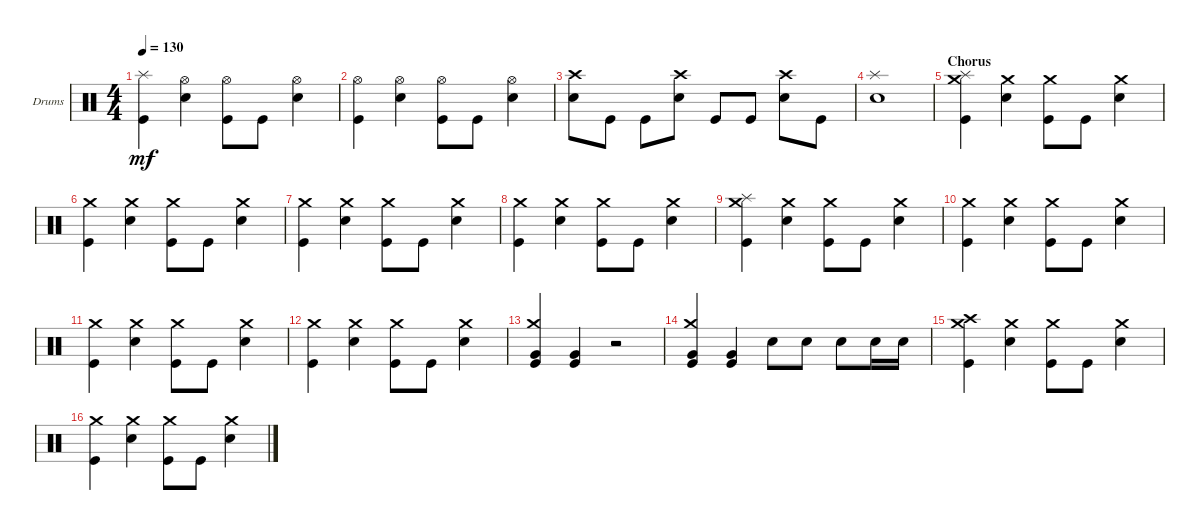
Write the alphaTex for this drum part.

\defaultSystemsLayout 4
\bracketExtendMode groupsimilarinstruments
\firstSystemTrackNameOrientation horizontal
\otherSystemsTrackNameOrientation horizontal
\track ("Drums" "Drums") {instrument percussion}
\staff {score}
\articulation defaults
\ts (4 4)
\tempo 130
\clef neutral
\ks c
("Kick (hit)" "Splash (hit)").4{dy mf} ("Snare (hit) 2" "Hi-Hat (open)").4 ("Kick (hit)" "Hi-Hat (open)").8 "Kick (hit)".8 ("Snare (hit) 2" "Hi-Hat (open)").4 |
("Kick (hit)" "Hi-Hat (open)").4 ("Snare (hit) 2" "Hi-Hat (open)").4 ("Kick (hit)" "Hi-Hat (open)").8 "Kick (hit)".8 ("Snare (hit) 2" "Hi-Hat (open)").4 |
("Snare (hit) 2" "Crash high (hit)").8 "Kick (hit)".8 "Kick (hit)".8 ("Snare (hit) 2" "Crash high (hit)").8 "Kick (hit)".8 "Kick (hit)".8 ("Snare (hit) 2" "Crash high (hit)").8 "Kick (hit)".8 |
("Snare (hit) 2" "Splash (hit)").1 |
\section ("" "Chorus")
("Kick (hit)" "Splash (hit)" "Crash medium (hit)").4 ("Snare (hit) 2" "Crash medium (hit)").4 ("Kick (hit)" "Crash medium (hit)").8 "Kick (hit)".8 ("Snare (hit) 2" "Crash medium (hit)").4 |
("Kick (hit)" "Crash medium (hit)").4 ("Snare (hit) 2" "Crash medium (hit)").4 ("Kick (hit)" "Crash medium (hit)").8 "Kick (hit)".8 ("Snare (hit) 2" "Crash medium (hit)").4 |
("Kick (hit)" "Crash medium (hit)").4 ("Snare (hit) 2" "Crash medium (hit)").4 ("Kick (hit)" "Crash medium (hit)").8 "Kick (hit)".8 ("Snare (hit) 2" "Crash medium (hit)").4 |
("Kick (hit)" "Crash medium (hit)").4 ("Snare (hit) 2" "Crash medium (hit)").4 ("Kick (hit)" "Crash medium (hit)").8 "Kick (hit)".8 ("Snare (hit) 2" "Crash medium (hit)").4 |
("Kick (hit)" "Splash (hit)" "Crash medium (hit)").4 ("Snare (hit) 2" "Crash medium (hit)").4 ("Kick (hit)" "Crash medium (hit)").8 "Kick (hit)".8 ("Snare (hit) 2" "Crash medium (hit)").4 |
("Kick (hit)" "Crash medium (hit)").4 ("Snare (hit) 2" "Crash medium (hit)").4 ("Kick (hit)" "Crash medium (hit)").8 "Kick (hit)".8 ("Snare (hit) 2" "Crash medium (hit)").4 |
("Kick (hit)" "Crash medium (hit)").4 ("Snare (hit) 2" "Crash medium (hit)").4 ("Kick (hit)" "Crash medium (hit)").8 "Kick (hit)".8 ("Snare (hit) 2" "Crash medium (hit)").4 |
("Kick (hit)" "Crash medium (hit)").4 ("Snare (hit) 2" "Crash medium (hit)").4 ("Kick (hit)" "Crash medium (hit)").8 "Kick (hit)".8 ("Snare (hit) 2" "Crash medium (hit)").4 |
("Kick (hit)" "Very Low Tom (hit)" "Crash medium (hit)").4 ("Kick (hit)" "Very Low Tom (hit)").4 r.2 |
("Kick (hit)" "Very Low Tom (hit)" "Crash medium (hit)").4 ("Kick (hit)" "Very Low Tom (hit)").4 "Snare (hit) 2".8 "Snare (hit) 2".8 "Snare (hit) 2".8 "Snare (hit) 2".16 "Snare (hit) 2".16 |
("Kick (hit)" "Crash medium (hit)" "Crash high (hit)").4 ("Snare (hit) 2" "Crash medium (hit)").4 ("Kick (hit)" "Crash medium (hit)").8 "Kick (hit)".8 ("Snare (hit) 2" "Crash medium (hit)").4 |
("Kick (hit)" "Crash medium (hit)").4 ("Snare (hit) 2" "Crash medium (hit)").4 ("Kick (hit)" "Crash medium (hit)").8 "Kick (hit)".8 ("Snare (hit) 2" "Crash medium (hit)").4
